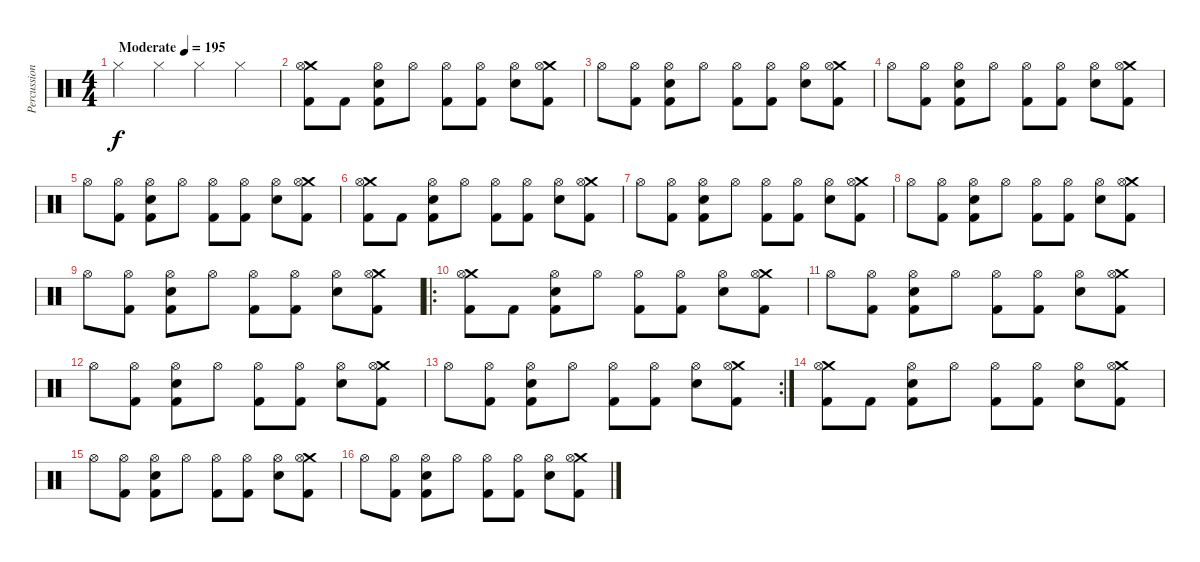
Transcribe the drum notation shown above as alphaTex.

\track ("Percussion" "Percussion") {instrument percussion}
\staff {score}
\articulation defaults
\ts (4 4)
\tempo (195 "Moderate")
\clef neutral
\ks c "Hi-Hat (closed)".4{dy f} "Hi-Hat (closed)".4 "Hi-Hat (closed)".4 "Hi-Hat (closed)".4
|
("Crash medium (hit)" "Hi-Hat (open)" "Kick (hit) 2").8 "Kick (hit) 2".8 ("Hi-Hat (open)" "Snare (hit) 2" "Kick (hit) 2").8 "Hi-Hat (open)".8 ("Hi-Hat (open)" "Kick (hit) 2").8 ("Hi-Hat (open)" "Kick (hit) 2").8 ("Hi-Hat (open)" "Snare (hit) 2").8 ("Crash medium (hit)" "Hi-Hat (open)" "Kick (hit) 2").8 |
"Hi-Hat (open)".8 ("Hi-Hat (open)" "Kick (hit) 2").8 ("Hi-Hat (open)" "Snare (hit) 2" "Kick (hit) 2").8 "Hi-Hat (open)".8 ("Hi-Hat (open)" "Kick (hit) 2").8 ("Hi-Hat (open)" "Kick (hit) 2").8 ("Hi-Hat (open)" "Snare (hit) 2").8 ("Crash medium (hit)" "Hi-Hat (open)" "Kick (hit) 2").8 |
"Hi-Hat (open)".8 ("Hi-Hat (open)" "Kick (hit) 2").8 ("Hi-Hat (open)" "Snare (hit) 2" "Kick (hit) 2").8 "Hi-Hat (open)".8 ("Hi-Hat (open)" "Kick (hit) 2").8 ("Hi-Hat (open)" "Kick (hit) 2").8 ("Hi-Hat (open)" "Snare (hit) 2").8 ("Crash medium (hit)" "Hi-Hat (open)" "Kick (hit) 2").8 |
"Hi-Hat (open)".8 ("Hi-Hat (open)" "Kick (hit) 2").8 ("Hi-Hat (open)" "Snare (hit) 2" "Kick (hit) 2").8 "Hi-Hat (open)".8 ("Hi-Hat (open)" "Kick (hit) 2").8 ("Hi-Hat (open)" "Kick (hit) 2").8 ("Hi-Hat (open)" "Snare (hit) 2").8 ("Crash medium (hit)" "Hi-Hat (open)" "Kick (hit) 2").8 |
("Crash medium (hit)" "Hi-Hat (open)" "Kick (hit) 2").8 "Kick (hit) 2".8 ("Hi-Hat (open)" "Snare (hit) 2" "Kick (hit) 2").8 "Hi-Hat (open)".8 ("Hi-Hat (open)" "Kick (hit) 2").8 ("Hi-Hat (open)" "Kick (hit) 2").8 ("Hi-Hat (open)" "Snare (hit) 2").8 ("Crash medium (hit)" "Hi-Hat (open)" "Kick (hit) 2").8 |
"Hi-Hat (open)".8 ("Hi-Hat (open)" "Kick (hit) 2").8 ("Hi-Hat (open)" "Snare (hit) 2" "Kick (hit) 2").8 "Hi-Hat (open)".8 ("Hi-Hat (open)" "Kick (hit) 2").8 ("Hi-Hat (open)" "Kick (hit) 2").8 ("Hi-Hat (open)" "Snare (hit) 2").8 ("Crash medium (hit)" "Hi-Hat (open)" "Kick (hit) 2").8 |
"Hi-Hat (open)".8 ("Hi-Hat (open)" "Kick (hit) 2").8 ("Hi-Hat (open)" "Snare (hit) 2" "Kick (hit) 2").8 "Hi-Hat (open)".8 ("Hi-Hat (open)" "Kick (hit) 2").8 ("Hi-Hat (open)" "Kick (hit) 2").8 ("Hi-Hat (open)" "Snare (hit) 2").8 ("Crash medium (hit)" "Hi-Hat (open)" "Kick (hit) 2").8 |
"Hi-Hat (open)".8 ("Hi-Hat (open)" "Kick (hit) 2").8 ("Hi-Hat (open)" "Snare (hit) 2" "Kick (hit) 2").8 "Hi-Hat (open)".8 ("Hi-Hat (open)" "Kick (hit) 2").8 ("Hi-Hat (open)" "Kick (hit) 2").8 ("Hi-Hat (open)" "Snare (hit) 2").8 ("Crash medium (hit)" "Hi-Hat (open)" "Kick (hit) 2").8 |
\ro
("Crash medium (hit)" "Hi-Hat (open)" "Kick (hit) 2").8 "Kick (hit) 2".8 ("Hi-Hat (open)" "Snare (hit) 2" "Kick (hit) 2").8 "Hi-Hat (open)".8 ("Hi-Hat (open)" "Kick (hit) 2").8 ("Hi-Hat (open)" "Kick (hit) 2").8 ("Hi-Hat (open)" "Snare (hit) 2").8 ("Crash medium (hit)" "Hi-Hat (open)" "Kick (hit) 2").8 |
"Hi-Hat (open)".8 ("Hi-Hat (open)" "Kick (hit) 2").8 ("Hi-Hat (open)" "Snare (hit) 2" "Kick (hit) 2").8 "Hi-Hat (open)".8 ("Hi-Hat (open)" "Kick (hit) 2").8 ("Hi-Hat (open)" "Kick (hit) 2").8 ("Hi-Hat (open)" "Snare (hit) 2").8 ("Crash medium (hit)" "Hi-Hat (open)" "Kick (hit) 2").8 |
"Hi-Hat (open)".8 ("Hi-Hat (open)" "Kick (hit) 2").8 ("Hi-Hat (open)" "Snare (hit) 2" "Kick (hit) 2").8 "Hi-Hat (open)".8 ("Hi-Hat (open)" "Kick (hit) 2").8 ("Hi-Hat (open)" "Kick (hit) 2").8 ("Hi-Hat (open)" "Snare (hit) 2").8 ("Crash medium (hit)" "Hi-Hat (open)" "Kick (hit) 2").8 |
\rc 2 "Hi-Hat (open)".8
("Hi-Hat (open)" "Kick (hit) 2").8 ("Hi-Hat (open)" "Snare (hit) 2" "Kick (hit) 2").8 "Hi-Hat (open)".8 ("Hi-Hat (open)" "Kick (hit) 2").8 ("Hi-Hat (open)" "Kick (hit) 2").8 ("Hi-Hat (open)" "Snare (hit) 2").8 ("Crash medium (hit)" "Hi-Hat (open)" "Kick (hit) 2").8 |
("Crash medium (hit)" "Hi-Hat (open)" "Kick (hit) 2").8 "Kick (hit) 2".8 ("Hi-Hat (open)" "Snare (hit) 2" "Kick (hit) 2").8 "Hi-Hat (open)".8 ("Hi-Hat (open)" "Kick (hit) 2").8 ("Hi-Hat (open)" "Kick (hit) 2").8 ("Hi-Hat (open)" "Snare (hit) 2").8 ("Crash medium (hit)" "Hi-Hat (open)" "Kick (hit) 2").8 |
"Hi-Hat (open)".8 ("Hi-Hat (open)" "Kick (hit) 2").8 ("Hi-Hat (open)" "Snare (hit) 2" "Kick (hit) 2").8 "Hi-Hat (open)".8 ("Hi-Hat (open)" "Kick (hit) 2").8 ("Hi-Hat (open)" "Kick (hit) 2").8 ("Hi-Hat (open)" "Snare (hit) 2").8 ("Crash medium (hit)" "Hi-Hat (open)" "Kick (hit) 2").8 |
"Hi-Hat (open)".8 ("Hi-Hat (open)" "Kick (hit) 2").8 ("Hi-Hat (open)" "Snare (hit) 2" "Kick (hit) 2").8 "Hi-Hat (open)".8 ("Hi-Hat (open)" "Kick (hit) 2").8 ("Hi-Hat (open)" "Kick (hit) 2").8 ("Hi-Hat (open)" "Snare (hit) 2").8 ("Crash medium (hit)" "Hi-Hat (open)" "Kick (hit) 2").8
